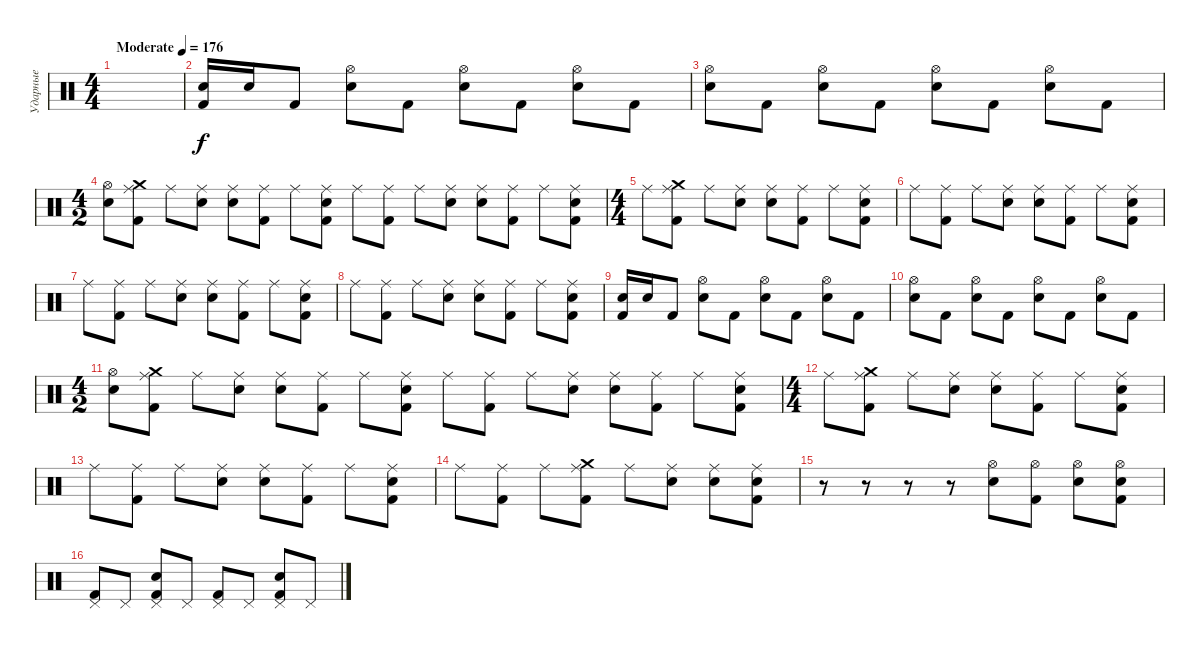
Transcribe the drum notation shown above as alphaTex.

\track ("Ударные" "Ударные") {instrument percussion}
\staff {score}
\articulation defaults
\ts (4 4)
\tempo (176 "Moderate")
\clef neutral
\ks c
|
("Kick (hit) 2" "Electric Snare (hit)").16 "Electric Snare (hit)".16 "Kick (hit) 2".8 ("Electric Snare (hit)" "Hi-Hat (open)").8 "Kick (hit) 2".8 ("Electric Snare (hit)" "Hi-Hat (open)").8 "Kick (hit) 2".8 ("Electric Snare (hit)" "Hi-Hat (open)").8 "Kick (hit) 2".8 |
("Electric Snare (hit)" "Hi-Hat (open)").8 "Kick (hit) 2".8 ("Electric Snare (hit)" "Hi-Hat (open)").8 "Kick (hit) 2".8 ("Electric Snare (hit)" "Hi-Hat (open)").8 "Kick (hit) 2".8 ("Electric Snare (hit)" "Hi-Hat (open)").8 "Kick (hit) 2".8 |
\ts (4 2)
("Electric Snare (hit)" "Hi-Hat (open)").8 ("Kick (hit) 2" "Ride (middle)" "Crash medium (hit)").8 "Ride (middle)".8 ("Ride (middle)" "Electric Snare (hit)").8 ("Ride (middle)" "Electric Snare (hit)").8 ("Kick (hit) 2" "Ride (middle)").8 "Ride (middle)".8 ("Kick (hit) 2" "Ride (middle)" "Electric Snare (hit)").8 "Ride (middle)".8 ("Kick (hit) 2" "Ride (middle)").8 "Ride (middle)".8 ("Ride (middle)" "Electric Snare (hit)").8 ("Ride (middle)" "Electric Snare (hit)").8 ("Kick (hit) 2" "Ride (middle)").8 "Ride (middle)".8 ("Kick (hit) 2" "Ride (middle)" "Electric Snare (hit)").8 |
\ts (4 4)
"Ride (middle)".8 ("Kick (hit) 2" "Ride (middle)" "Crash medium (hit)").8 "Ride (middle)".8 ("Ride (middle)" "Electric Snare (hit)").8 ("Ride (middle)" "Electric Snare (hit)").8 ("Kick (hit) 2" "Ride (middle)").8 "Ride (middle)".8 ("Kick (hit) 2" "Ride (middle)" "Electric Snare (hit)").8 |
"Ride (middle)".8 ("Kick (hit) 2" "Ride (middle)").8 "Ride (middle)".8 ("Ride (middle)" "Electric Snare (hit)").8 ("Ride (middle)" "Electric Snare (hit)").8 ("Kick (hit) 2" "Ride (middle)").8 "Ride (middle)".8 ("Kick (hit) 2" "Ride (middle)" "Electric Snare (hit)").8 |
"Ride (middle)".8 ("Kick (hit) 2" "Ride (middle)").8 "Ride (middle)".8 ("Ride (middle)" "Electric Snare (hit)").8 ("Ride (middle)" "Electric Snare (hit)").8 ("Kick (hit) 2" "Ride (middle)").8 "Ride (middle)".8 ("Kick (hit) 2" "Ride (middle)" "Electric Snare (hit)").8 |
"Ride (middle)".8 ("Kick (hit) 2" "Ride (middle)").8 "Ride (middle)".8 ("Ride (middle)" "Electric Snare (hit)").8 ("Ride (middle)" "Electric Snare (hit)").8 ("Kick (hit) 2" "Ride (middle)").8 "Ride (middle)".8 ("Kick (hit) 2" "Ride (middle)" "Electric Snare (hit)").8 |
("Kick (hit) 2" "Electric Snare (hit)").16 "Electric Snare (hit)".16 "Kick (hit) 2".8 ("Electric Snare (hit)" "Hi-Hat (open)").8 "Kick (hit) 2".8 ("Electric Snare (hit)" "Hi-Hat (open)").8 "Kick (hit) 2".8 ("Electric Snare (hit)" "Hi-Hat (open)").8 "Kick (hit) 2".8 |
("Electric Snare (hit)" "Hi-Hat (open)").8 "Kick (hit) 2".8 ("Electric Snare (hit)" "Hi-Hat (open)").8 "Kick (hit) 2".8 ("Electric Snare (hit)" "Hi-Hat (open)").8 "Kick (hit) 2".8 ("Electric Snare (hit)" "Hi-Hat (open)").8 "Kick (hit) 2".8 |
\ts (4 2)
("Electric Snare (hit)" "Hi-Hat (open)").8 ("Kick (hit) 2" "Ride (middle)" "Crash medium (hit)").8 "Ride (middle)".8 ("Ride (middle)" "Electric Snare (hit)").8 ("Ride (middle)" "Electric Snare (hit)").8 ("Kick (hit) 2" "Ride (middle)").8 "Ride (middle)".8 ("Kick (hit) 2" "Ride (middle)" "Electric Snare (hit)").8 "Ride (middle)".8 ("Kick (hit) 2" "Ride (middle)").8 "Ride (middle)".8 ("Ride (middle)" "Electric Snare (hit)").8 ("Ride (middle)" "Electric Snare (hit)").8 ("Kick (hit) 2" "Ride (middle)").8 "Ride (middle)".8 ("Kick (hit) 2" "Ride (middle)" "Electric Snare (hit)").8 |
\ts (4 4)
"Ride (middle)".8 ("Kick (hit) 2" "Ride (middle)" "Crash medium (hit)").8 "Ride (middle)".8 ("Ride (middle)" "Electric Snare (hit)").8 ("Ride (middle)" "Electric Snare (hit)").8 ("Kick (hit) 2" "Ride (middle)").8 "Ride (middle)".8 ("Kick (hit) 2" "Ride (middle)" "Electric Snare (hit)").8 |
"Ride (middle)".8 ("Kick (hit) 2" "Ride (middle)").8 "Ride (middle)".8 ("Ride (middle)" "Electric Snare (hit)").8 ("Ride (middle)" "Electric Snare (hit)").8 ("Kick (hit) 2" "Ride (middle)").8 "Ride (middle)".8 ("Kick (hit) 2" "Ride (middle)" "Electric Snare (hit)").8 |
"Ride (middle)".8 ("Kick (hit) 2" "Ride (middle)").8 "Ride (middle)".8 ("Kick (hit) 2" "Ride (middle)" "Crash medium (hit)").8 "Ride (middle)".8 ("Ride (middle)" "Electric Snare (hit)").8 ("Ride (middle)" "Electric Snare (hit)").8 ("Kick (hit) 2" "Electric Snare (hit)" "Ride (middle)").8 |
r.8 r.8 r.8 r.8 ("Electric Snare (hit)" "Hi-Hat (open)").8 ("Kick (hit) 2" "Hi-Hat (open)").8 ("Electric Snare (hit)" "Hi-Hat (open)").8 ("Kick (hit) 2" "Electric Snare (hit)" "Hi-Hat (open)").8 |
("Kick (hit) 2" "Pedal Hi-Hat (hit)").8 "Pedal Hi-Hat (hit)".8 ("Kick (hit) 2" "Electric Snare (hit)" "Pedal Hi-Hat (hit)").8 "Pedal Hi-Hat (hit)".8 ("Kick (hit) 2" "Pedal Hi-Hat (hit)").8 "Pedal Hi-Hat (hit)".8 ("Kick (hit) 2" "Electric Snare (hit)" "Pedal Hi-Hat (hit)").8 "Pedal Hi-Hat (hit)".8
